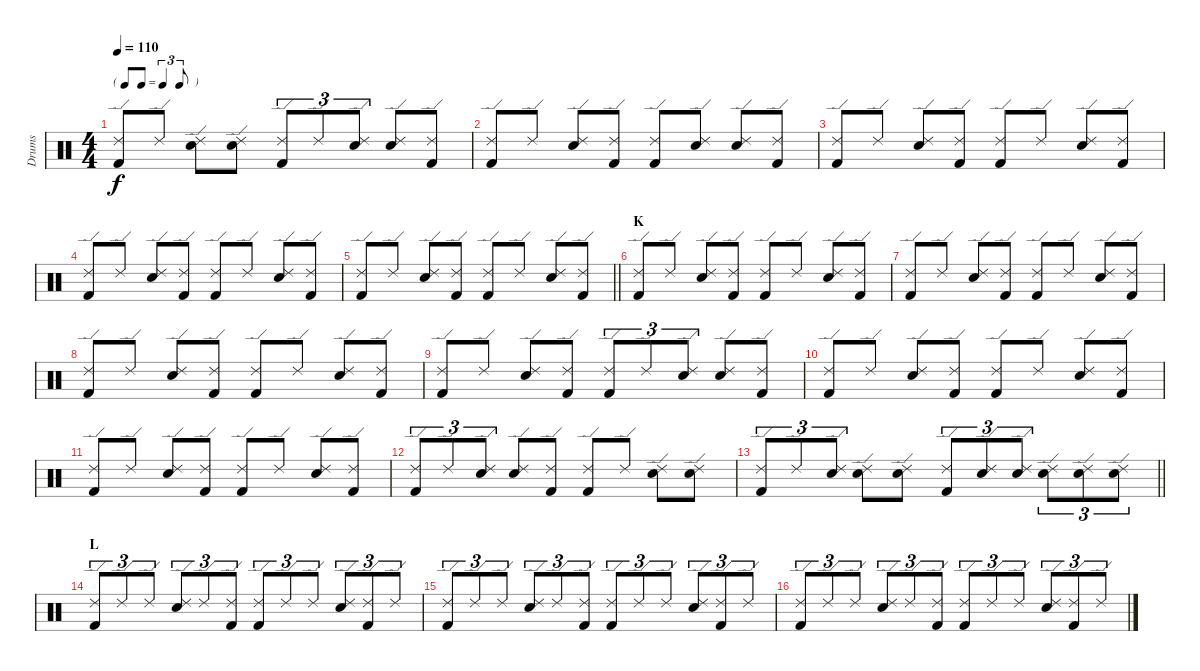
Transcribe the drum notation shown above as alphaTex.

\track ("Drums" "Drums") {instrument percussion}
\staff {score}
\articulation defaults
\ts (4 4)
\tf triplet8th
\tempo 110
\clef neutral
\ks c
("Ride (edge) 2" "Kick (hit) 2").8{dy f} "Ride (edge) 2".8 ("Ride (edge) 2" "Snare (hit) 2").8 ("Ride (edge) 2" "Snare (hit) 2").8 ("Ride (edge) 2" "Kick (hit) 2").8{tu (3 2)} "Ride (edge) 2".8{tu (3 2)} ("Ride (edge) 2" "Snare (hit) 2").8{tu (3 2)} ("Ride (edge) 2" "Snare (hit) 2").8 ("Ride (edge) 2" "Kick (hit) 2").8 |
("Ride (edge) 2" "Kick (hit) 2").8 "Ride (edge) 2".8 ("Ride (edge) 2" "Snare (hit) 2").8 ("Ride (edge) 2" "Kick (hit) 2").8 ("Ride (edge) 2" "Kick (hit) 2").8 ("Ride (edge) 2" "Snare (hit) 2").8 ("Ride (edge) 2" "Snare (hit) 2").8 ("Ride (edge) 2" "Kick (hit) 2").8 |
("Ride (edge) 2" "Kick (hit) 2").8 "Ride (edge) 2".8 ("Ride (edge) 2" "Snare (hit) 2").8 ("Ride (edge) 2" "Kick (hit) 2").8 ("Ride (edge) 2" "Kick (hit) 2").8 "Ride (edge) 2".8 ("Ride (edge) 2" "Snare (hit) 2").8 ("Ride (edge) 2" "Kick (hit) 2").8 |
("Ride (edge) 2" "Kick (hit) 2").8 "Ride (edge) 2".8 ("Ride (edge) 2" "Snare (hit) 2").8 ("Ride (edge) 2" "Kick (hit) 2").8 ("Ride (edge) 2" "Kick (hit) 2").8 "Ride (edge) 2".8 ("Ride (edge) 2" "Snare (hit) 2").8 ("Ride (edge) 2" "Kick (hit) 2").8 |
\barLineRight lightlight
("Ride (edge) 2" "Kick (hit) 2").8 "Ride (edge) 2".8 ("Ride (edge) 2" "Snare (hit) 2").8 ("Ride (edge) 2" "Kick (hit) 2").8 ("Ride (edge) 2" "Kick (hit) 2").8 "Ride (edge) 2".8 ("Ride (edge) 2" "Snare (hit) 2").8 ("Ride (edge) 2" "Kick (hit) 2").8 |
\section ("" "K")
("Ride (edge) 2" "Kick (hit) 2").8 "Ride (edge) 2".8 ("Ride (edge) 2" "Snare (hit) 2").8 ("Ride (edge) 2" "Kick (hit) 2").8 ("Ride (edge) 2" "Kick (hit) 2").8 "Ride (edge) 2".8 ("Ride (edge) 2" "Snare (hit) 2").8 ("Ride (edge) 2" "Kick (hit) 2").8 |
("Ride (edge) 2" "Kick (hit) 2").8 "Ride (edge) 2".8 ("Ride (edge) 2" "Snare (hit) 2").8 ("Ride (edge) 2" "Kick (hit) 2").8 ("Ride (edge) 2" "Kick (hit) 2").8 "Ride (edge) 2".8 ("Ride (edge) 2" "Snare (hit) 2").8 ("Ride (edge) 2" "Kick (hit) 2").8 |
("Ride (edge) 2" "Kick (hit) 2").8 "Ride (edge) 2".8 ("Ride (edge) 2" "Snare (hit) 2").8 ("Ride (edge) 2" "Kick (hit) 2").8 ("Ride (edge) 2" "Kick (hit) 2").8 "Ride (edge) 2".8 ("Ride (edge) 2" "Snare (hit) 2").8 ("Ride (edge) 2" "Kick (hit) 2").8 |
("Ride (edge) 2" "Kick (hit) 2").8 "Ride (edge) 2".8 ("Ride (edge) 2" "Snare (hit) 2").8 ("Ride (edge) 2" "Kick (hit) 2").8 ("Ride (edge) 2" "Kick (hit) 2").8{tu (3 2)} "Ride (edge) 2".8{tu (3 2)} ("Ride (edge) 2" "Snare (hit) 2").8{tu (3 2)} ("Ride (edge) 2" "Snare (hit) 2").8 ("Ride (edge) 2" "Kick (hit) 2").8 |
("Ride (edge) 2" "Kick (hit) 2").8 "Ride (edge) 2".8 ("Ride (edge) 2" "Snare (hit) 2").8 ("Ride (edge) 2" "Kick (hit) 2").8 ("Ride (edge) 2" "Kick (hit) 2").8 "Ride (edge) 2".8 ("Ride (edge) 2" "Snare (hit) 2").8 ("Ride (edge) 2" "Kick (hit) 2").8 |
("Ride (edge) 2" "Kick (hit) 2").8 "Ride (edge) 2".8 ("Ride (edge) 2" "Snare (hit) 2").8 ("Ride (edge) 2" "Kick (hit) 2").8 ("Ride (edge) 2" "Kick (hit) 2").8 "Ride (edge) 2".8 ("Ride (edge) 2" "Snare (hit) 2").8 ("Ride (edge) 2" "Kick (hit) 2").8 |
("Ride (edge) 2" "Kick (hit) 2").8{tu (3 2)} "Ride (edge) 2".8{tu (3 2)} ("Ride (edge) 2" "Snare (hit) 2").8{tu (3 2)} ("Ride (edge) 2" "Snare (hit) 2").8 ("Ride (edge) 2" "Kick (hit) 2").8 ("Ride (edge) 2" "Kick (hit) 2").8 "Ride (edge) 2".8 ("Ride (edge) 2" "Snare (hit) 2").8 ("Ride (edge) 2" "Snare (hit) 2").8 |
\barLineRight lightlight
("Ride (edge) 2" "Kick (hit) 2").8{tu (3 2)} "Ride (edge) 2".8{tu (3 2)} ("Ride (edge) 2" "Snare (hit) 2").8{tu (3 2)} ("Ride (edge) 2" "Snare (hit) 2").8 ("Ride (edge) 2" "Snare (hit) 2").8 ("Ride (edge) 2" "Kick (hit) 2").8{tu (3 2)} ("Ride (edge) 2" "Snare (hit) 2").8{tu (3 2)} ("Ride (edge) 2" "Snare (hit) 2").8{tu (3 2)} ("Ride (edge) 2" "Snare (hit) 2").8{tu (3 2)} ("Ride (edge) 2" "Snare (hit) 2").8{tu (3 2)} ("Ride (edge) 2" "Snare (hit) 2").8{tu (3 2)} |
\section ("" "L")
("Ride (edge) 2" "Kick (hit) 2").8{tu (3 2)} "Ride (edge) 2".8{tu (3 2)} "Ride (edge) 2".8{tu (3 2)} ("Ride (edge) 2" "Snare (hit) 2").8{tu (3 2)} "Ride (edge) 2".8{tu (3 2)} ("Ride (edge) 2" "Kick (hit) 2").8{tu (3 2)} ("Ride (edge) 2" "Kick (hit) 2").8{tu (3 2)} "Ride (edge) 2".8{tu (3 2)} "Ride (edge) 2".8{tu (3 2)} ("Ride (edge) 2" "Snare (hit) 2").8{tu (3 2)} ("Ride (edge) 2" "Kick (hit) 2").8{tu (3 2)} "Ride (edge) 2".8{tu (3 2)} |
("Ride (edge) 2" "Kick (hit) 2").8{tu (3 2)} "Ride (edge) 2".8{tu (3 2)} "Ride (edge) 2".8{tu (3 2)} ("Ride (edge) 2" "Snare (hit) 2").8{tu (3 2)} "Ride (edge) 2".8{tu (3 2)} ("Ride (edge) 2" "Kick (hit) 2").8{tu (3 2)} ("Ride (edge) 2" "Kick (hit) 2").8{tu (3 2)} "Ride (edge) 2".8{tu (3 2)} "Ride (edge) 2".8{tu (3 2)} ("Ride (edge) 2" "Snare (hit) 2").8{tu (3 2)} ("Ride (edge) 2" "Kick (hit) 2").8{tu (3 2)} "Ride (edge) 2".8{tu (3 2)} |
("Ride (edge) 2" "Kick (hit) 2").8{tu (3 2)} "Ride (edge) 2".8{tu (3 2)} "Ride (edge) 2".8{tu (3 2)} ("Ride (edge) 2" "Snare (hit) 2").8{tu (3 2)} "Ride (edge) 2".8{tu (3 2)} ("Ride (edge) 2" "Kick (hit) 2").8{tu (3 2)} ("Ride (edge) 2" "Kick (hit) 2").8{tu (3 2)} "Ride (edge) 2".8{tu (3 2)} "Ride (edge) 2".8{tu (3 2)} ("Ride (edge) 2" "Snare (hit) 2").8{tu (3 2)} ("Ride (edge) 2" "Kick (hit) 2").8{tu (3 2)} "Ride (edge) 2".8{tu (3 2)}
